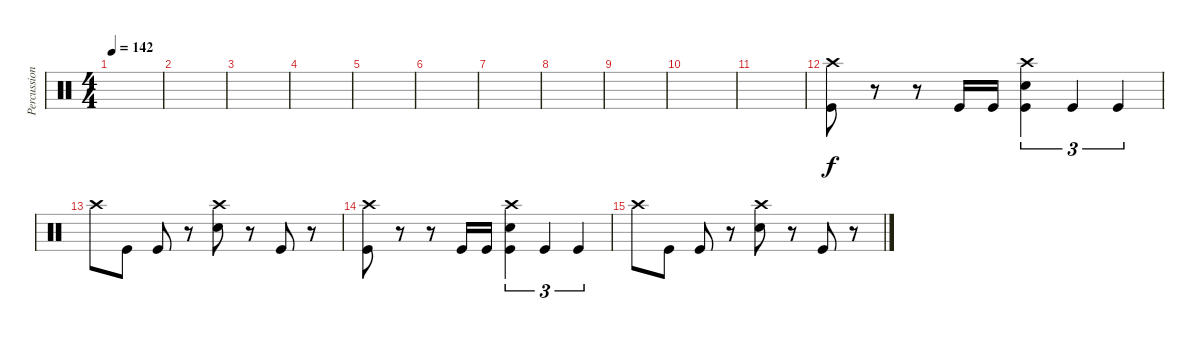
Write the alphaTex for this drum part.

\track ("Percussion" "Percussion") {instrument percussion}
\staff {score}
\articulation defaults
\ts (4 4)
\tempo 142
\clef neutral
\ks c
|
|
|
|
|
|
|
|
|
|
|
("Crash high (hit)" "Kick (hit)").8 r.8 r.8 "Kick (hit)".16 "Kick (hit)".16 ("Crash high (hit)" "Electric Snare (hit)" "Kick (hit)").4{tu (3 2)} "Kick (hit)".4{tu (3 2)} "Kick (hit)".4{tu (3 2)} |
"Crash high (hit)".8 "Kick (hit)".8 "Kick (hit)".8 r.8 ("Crash high (hit)" "Electric Snare (hit)").8 r.8 "Kick (hit)".8 r.8 |
("Crash high (hit)" "Kick (hit)").8 r.8 r.8 "Kick (hit)".16 "Kick (hit)".16 ("Crash high (hit)" "Electric Snare (hit)" "Kick (hit)").4{tu (3 2)} "Kick (hit)".4{tu (3 2)} "Kick (hit)".4{tu (3 2)} |
"Crash high (hit)".8 "Kick (hit)".8 "Kick (hit)".8 r.8 ("Crash high (hit)" "Electric Snare (hit)").8 r.8 "Kick (hit)".8 r.8
